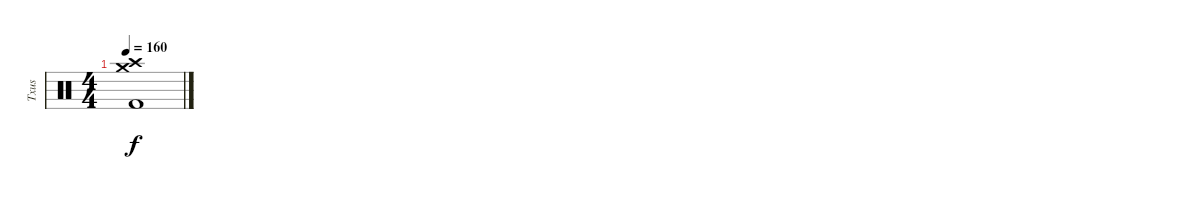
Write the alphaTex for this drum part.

\track ("Txus" "Txus") {instrument percussion}
\staff {score}
\articulation defaults
\ts (4 4)
\tempo 160
\clef neutral
\ks c
("Crash medium (hit)" "Crash high (hit)" "Kick (hit) 2").1{dy f}
